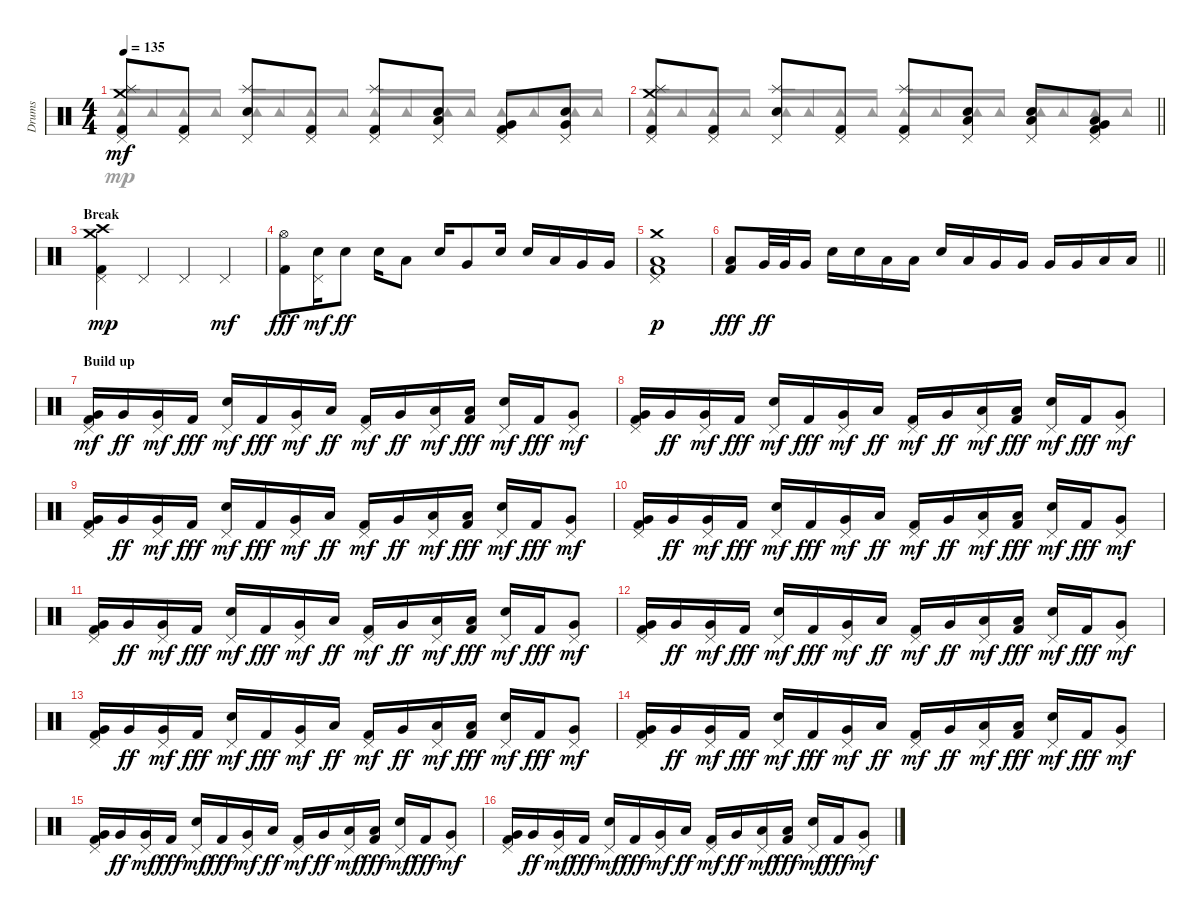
\track ("Drums" "Drums") {instrument percussion}
\staff {score}
\articulation defaults
\voice
\ts (4 4)
\tempo 135
\clef neutral
\ks c
("Splash (hit)" "Crash medium (hit)" "Kick (hit) 2" "Pedal Hi-Hat (hit)").8{dy mf} ("Kick (hit) 2" "Pedal Hi-Hat (hit)").8 ("Splash (hit)" "Snare (hit) 2" "Pedal Hi-Hat (hit)").8 ("Kick (hit) 2" "Pedal Hi-Hat (hit)").8 ("Splash (hit)" "Kick (hit) 2" "Pedal Hi-Hat (hit)").8 ("Low Tom (hit)" "Snare (hit) 2" "Pedal Hi-Hat (hit)").8 ("Very Low Tom (hit)" "Kick (hit) 2" "Pedal Hi-Hat (hit)").8 ("Very Low Tom (hit)" "Snare (hit) 2" "Pedal Hi-Hat (hit)").8 |
\barLineRight lightlight
("Splash (hit)" "Crash medium (hit)" "Kick (hit) 2" "Pedal Hi-Hat (hit)").8 ("Kick (hit) 2" "Pedal Hi-Hat (hit)").8 ("Splash (hit)" "Snare (hit) 2" "Pedal Hi-Hat (hit)").8 ("Kick (hit) 2" "Pedal Hi-Hat (hit)").8 ("Splash (hit)" "Kick (hit) 2" "Pedal Hi-Hat (hit)").8 ("Low Tom (hit)" "Snare (hit) 2" "Pedal Hi-Hat (hit)").8 ("Low Tom (hit)" "Snare (hit) 2" "Pedal Hi-Hat (hit)").8 ("Very Low Tom (hit)" "Low Floor Tom (hit)" "Kick (hit) 2" "Pedal Hi-Hat (hit)").8 |
\section ("" "Break")
("Crash medium (hit)" "Crash high (hit)" "Kick (hit) 2" "Pedal Hi-Hat (hit)").4{dy mp} "Pedal Hi-Hat (hit)".4 "Pedal Hi-Hat (hit)".4 "Pedal Hi-Hat (hit)".4{dy mf} |
("Hi-Hat (open)" "Kick (hit) 2").8{dy fff} ("Snare (hit) 2" "Pedal Hi-Hat (hit)").16{dy mf} "Snare (hit) 2".8{dy ff} "Snare (hit) 2".16 "Low Tom (hit)".8 "Snare (hit) 2".16 "Very Low Tom (hit)".8 "Snare (hit) 2".16 "Snare (hit) 2".16 "Low Tom (hit)".16 "Very Low Tom (hit)".16 "Very Low Tom (hit)".16 |
("Crash medium (hit)" "Low Floor Tom (hit)" "Kick (hit) 2" "Pedal Hi-Hat (hit)").1{dy p} |
\barLineRight lightlight
("Low Tom (hit)" "Kick (hit) 2").8{dy fff} "Very Low Tom (hit)".32{dy ff} "Very Low Tom (hit)".32 "Very Low Tom (hit)".16 "Snare (hit) 2".16 "Snare (hit) 2".16 "Low Tom (hit)".16 "Low Tom (hit)".16 "Snare (hit) 2".16 "Low Tom (hit)".16 "Very Low Tom (hit)".16 "Very Low Tom (hit)".16 "Very Low Tom (hit)".16 "Very Low Tom (hit)".16 "Low Floor Tom (hit)".16 "Low Floor Tom (hit)".16 |
\section ("" "Build up")
("Very Low Tom (hit)" "Kick (hit) 2" "Pedal Hi-Hat (hit)").16{dy mf} "Very Low Tom (hit)".16{dy ff} ("Very Low Tom (hit)" "Pedal Hi-Hat (hit)").16{dy mf} "Kick (hit) 2".16{dy fff} ("Snare (hit) 2" "Pedal Hi-Hat (hit)").16{dy mf} "Kick (hit) 2".16{dy fff} ("Very Low Tom (hit)" "Pedal Hi-Hat (hit)").16{dy mf} "Low Floor Tom (hit)".16{dy ff} ("Kick (hit) 2" "Pedal Hi-Hat (hit)").16{dy mf} "Very Low Tom (hit)".16{dy ff} ("Low Floor Tom (hit)" "Pedal Hi-Hat (hit)").16{dy mf} ("Low Floor Tom (hit)" "Kick (hit) 2").16{dy fff} ("Snare (hit) 2" "Pedal Hi-Hat (hit)").16{dy mf} "Kick (hit) 2".16{dy fff} ("Very Low Tom (hit)" "Pedal Hi-Hat (hit)").8{dy mf} |
("Very Low Tom (hit)" "Kick (hit) 2" "Pedal Hi-Hat (hit)").16 "Very Low Tom (hit)".16{dy ff} ("Very Low Tom (hit)" "Pedal Hi-Hat (hit)").16{dy mf} "Kick (hit) 2".16{dy fff} ("Snare (hit) 2" "Pedal Hi-Hat (hit)").16{dy mf} "Kick (hit) 2".16{dy fff} ("Very Low Tom (hit)" "Pedal Hi-Hat (hit)").16{dy mf} "Low Floor Tom (hit)".16{dy ff} ("Kick (hit) 2" "Pedal Hi-Hat (hit)").16{dy mf} "Very Low Tom (hit)".16{dy ff} ("Low Floor Tom (hit)" "Pedal Hi-Hat (hit)").16{dy mf} ("Low Floor Tom (hit)" "Kick (hit) 2").16{dy fff} ("Snare (hit) 2" "Pedal Hi-Hat (hit)").16{dy mf} "Kick (hit) 2".16{dy fff} ("Very Low Tom (hit)" "Pedal Hi-Hat (hit)").8{dy mf} |
("Very Low Tom (hit)" "Kick (hit) 2" "Pedal Hi-Hat (hit)").16 "Very Low Tom (hit)".16{dy ff} ("Very Low Tom (hit)" "Pedal Hi-Hat (hit)").16{dy mf} "Kick (hit) 2".16{dy fff} ("Snare (hit) 2" "Pedal Hi-Hat (hit)").16{dy mf} "Kick (hit) 2".16{dy fff} ("Very Low Tom (hit)" "Pedal Hi-Hat (hit)").16{dy mf} "Low Floor Tom (hit)".16{dy ff} ("Kick (hit) 2" "Pedal Hi-Hat (hit)").16{dy mf} "Very Low Tom (hit)".16{dy ff} ("Low Floor Tom (hit)" "Pedal Hi-Hat (hit)").16{dy mf} ("Low Floor Tom (hit)" "Kick (hit) 2").16{dy fff} ("Snare (hit) 2" "Pedal Hi-Hat (hit)").16{dy mf} "Kick (hit) 2".16{dy fff} ("Very Low Tom (hit)" "Pedal Hi-Hat (hit)").8{dy mf} |
("Very Low Tom (hit)" "Kick (hit) 2" "Pedal Hi-Hat (hit)").16 "Very Low Tom (hit)".16{dy ff} ("Very Low Tom (hit)" "Pedal Hi-Hat (hit)").16{dy mf} "Kick (hit) 2".16{dy fff} ("Snare (hit) 2" "Pedal Hi-Hat (hit)").16{dy mf} "Kick (hit) 2".16{dy fff} ("Very Low Tom (hit)" "Pedal Hi-Hat (hit)").16{dy mf} "Low Floor Tom (hit)".16{dy ff} ("Kick (hit) 2" "Pedal Hi-Hat (hit)").16{dy mf} "Very Low Tom (hit)".16{dy ff} ("Low Floor Tom (hit)" "Pedal Hi-Hat (hit)").16{dy mf} ("Low Floor Tom (hit)" "Kick (hit) 2").16{dy fff} ("Snare (hit) 2" "Pedal Hi-Hat (hit)").16{dy mf} "Kick (hit) 2".16{dy fff} ("Very Low Tom (hit)" "Pedal Hi-Hat (hit)").8{dy mf} |
("Very Low Tom (hit)" "Kick (hit) 2" "Pedal Hi-Hat (hit)").16 "Very Low Tom (hit)".16{dy ff} ("Very Low Tom (hit)" "Pedal Hi-Hat (hit)").16{dy mf} "Kick (hit) 2".16{dy fff} ("Snare (hit) 2" "Pedal Hi-Hat (hit)").16{dy mf} "Kick (hit) 2".16{dy fff} ("Very Low Tom (hit)" "Pedal Hi-Hat (hit)").16{dy mf} "Low Floor Tom (hit)".16{dy ff} ("Kick (hit) 2" "Pedal Hi-Hat (hit)").16{dy mf} "Very Low Tom (hit)".16{dy ff} ("Low Floor Tom (hit)" "Pedal Hi-Hat (hit)").16{dy mf} ("Low Floor Tom (hit)" "Kick (hit) 2").16{dy fff} ("Snare (hit) 2" "Pedal Hi-Hat (hit)").16{dy mf} "Kick (hit) 2".16{dy fff} ("Very Low Tom (hit)" "Pedal Hi-Hat (hit)").8{dy mf} |
("Very Low Tom (hit)" "Kick (hit) 2" "Pedal Hi-Hat (hit)").16 "Very Low Tom (hit)".16{dy ff} ("Very Low Tom (hit)" "Pedal Hi-Hat (hit)").16{dy mf} "Kick (hit) 2".16{dy fff} ("Snare (hit) 2" "Pedal Hi-Hat (hit)").16{dy mf} "Kick (hit) 2".16{dy fff} ("Very Low Tom (hit)" "Pedal Hi-Hat (hit)").16{dy mf} "Low Floor Tom (hit)".16{dy ff} ("Kick (hit) 2" "Pedal Hi-Hat (hit)").16{dy mf} "Very Low Tom (hit)".16{dy ff} ("Low Floor Tom (hit)" "Pedal Hi-Hat (hit)").16{dy mf} ("Low Floor Tom (hit)" "Kick (hit) 2").16{dy fff} ("Snare (hit) 2" "Pedal Hi-Hat (hit)").16{dy mf} "Kick (hit) 2".16{dy fff} ("Very Low Tom (hit)" "Pedal Hi-Hat (hit)").8{dy mf} |
("Very Low Tom (hit)" "Kick (hit) 2" "Pedal Hi-Hat (hit)").16 "Very Low Tom (hit)".16{dy ff} ("Very Low Tom (hit)" "Pedal Hi-Hat (hit)").16{dy mf} "Kick (hit) 2".16{dy fff} ("Snare (hit) 2" "Pedal Hi-Hat (hit)").16{dy mf} "Kick (hit) 2".16{dy fff} ("Very Low Tom (hit)" "Pedal Hi-Hat (hit)").16{dy mf} "Low Floor Tom (hit)".16{dy ff} ("Kick (hit) 2" "Pedal Hi-Hat (hit)").16{dy mf} "Very Low Tom (hit)".16{dy ff} ("Low Floor Tom (hit)" "Pedal Hi-Hat (hit)").16{dy mf} ("Low Floor Tom (hit)" "Kick (hit) 2").16{dy fff} ("Snare (hit) 2" "Pedal Hi-Hat (hit)").16{dy mf} "Kick (hit) 2".16{dy fff} ("Very Low Tom (hit)" "Pedal Hi-Hat (hit)").8{dy mf} |
("Very Low Tom (hit)" "Kick (hit) 2" "Pedal Hi-Hat (hit)").16 "Very Low Tom (hit)".16{dy ff} ("Very Low Tom (hit)" "Pedal Hi-Hat (hit)").16{dy mf} "Kick (hit) 2".16{dy fff} ("Snare (hit) 2" "Pedal Hi-Hat (hit)").16{dy mf} "Kick (hit) 2".16{dy fff} ("Very Low Tom (hit)" "Pedal Hi-Hat (hit)").16{dy mf} "Low Floor Tom (hit)".16{dy ff} ("Kick (hit) 2" "Pedal Hi-Hat (hit)").16{dy mf} "Very Low Tom (hit)".16{dy ff} ("Low Floor Tom (hit)" "Pedal Hi-Hat (hit)").16{dy mf} ("Low Floor Tom (hit)" "Kick (hit) 2").16{dy fff} ("Snare (hit) 2" "Pedal Hi-Hat (hit)").16{dy mf} "Kick (hit) 2".16{dy fff} ("Very Low Tom (hit)" "Pedal Hi-Hat (hit)").8{dy mf} |
("Very Low Tom (hit)" "Kick (hit) 2" "Pedal Hi-Hat (hit)").16 "Very Low Tom (hit)".16{dy ff} ("Very Low Tom (hit)" "Pedal Hi-Hat (hit)").16{dy mf} "Kick (hit) 2".16{dy fff} ("Snare (hit) 2" "Pedal Hi-Hat (hit)").16{dy mf} "Kick (hit) 2".16{dy fff} ("Very Low Tom (hit)" "Pedal Hi-Hat (hit)").16{dy mf} "Low Floor Tom (hit)".16{dy ff} ("Kick (hit) 2" "Pedal Hi-Hat (hit)").16{dy mf} "Very Low Tom (hit)".16{dy ff} ("Low Floor Tom (hit)" "Pedal Hi-Hat (hit)").16{dy mf} ("Low Floor Tom (hit)" "Kick (hit) 2").16{dy fff} ("Snare (hit) 2" "Pedal Hi-Hat (hit)").16{dy mf} "Kick (hit) 2".16{dy fff} ("Very Low Tom (hit)" "Pedal Hi-Hat (hit)").8{dy mf} |
("Very Low Tom (hit)" "Kick (hit) 2" "Pedal Hi-Hat (hit)").16 "Very Low Tom (hit)".16{dy ff} ("Very Low Tom (hit)" "Pedal Hi-Hat (hit)").16{dy mf} "Kick (hit) 2".16{dy fff} ("Snare (hit) 2" "Pedal Hi-Hat (hit)").16{dy mf} "Kick (hit) 2".16{dy fff} ("Very Low Tom (hit)" "Pedal Hi-Hat (hit)").16{dy mf} "Low Floor Tom (hit)".16{dy ff} ("Kick (hit) 2" "Pedal Hi-Hat (hit)").16{dy mf} "Very Low Tom (hit)".16{dy ff} ("Low Floor Tom (hit)" "Pedal Hi-Hat (hit)").16{dy mf} ("Low Floor Tom (hit)" "Kick (hit) 2").16{dy fff} ("Snare (hit) 2" "Pedal Hi-Hat (hit)").16{dy mf} "Kick (hit) 2".16{dy fff} ("Very Low Tom (hit)" "Pedal Hi-Hat (hit)").8{dy mf}
\voice
\clef neutral
\ottava regular
\simile none
\ks c "Tambourine (hit)".16{dy mp beam Up} "Tambourine (hit)".16{beam Up} "Tambourine (hit)".16{beam Up} "Tambourine (hit)".16{beam Up} "Tambourine (hit)".16{beam Up} "Tambourine (hit)".16{beam Up} "Tambourine (hit)".16{beam Up} "Tambourine (hit)".16{beam Up} "Tambourine (hit)".16{beam Up} "Tambourine (hit)".16{beam Up} "Tambourine (hit)".16{beam Up} "Tambourine (hit)".16{beam Up} "Tambourine (hit)".16{beam Up} "Tambourine (hit)".16{beam Up} "Tambourine (hit)".16{beam Up} "Tambourine (hit)".16{beam Up}
|
\barLineRight lightlight "Tambourine (hit)".16{beam Up} "Tambourine (hit)".16{beam Up} "Tambourine (hit)".16{beam Up} "Tambourine (hit)".16{beam Up} "Tambourine (hit)".16{beam Up} "Tambourine (hit)".16{beam Up} "Tambourine (hit)".16{beam Up} "Tambourine (hit)".16{beam Up} "Tambourine (hit)".16{beam Up} "Tambourine (hit)".16{beam Up} "Tambourine (hit)".16{beam Up} "Tambourine (hit)".16{beam Up} "Tambourine (hit)".16{beam Up} "Tambourine (hit)".16{beam Up} "Tambourine (hit)".16{beam Up} "Tambourine (hit)".16{beam Up}
|
|
|
|
\barLineRight lightlight
|
|
|
|
|
|
|
|
|
|
